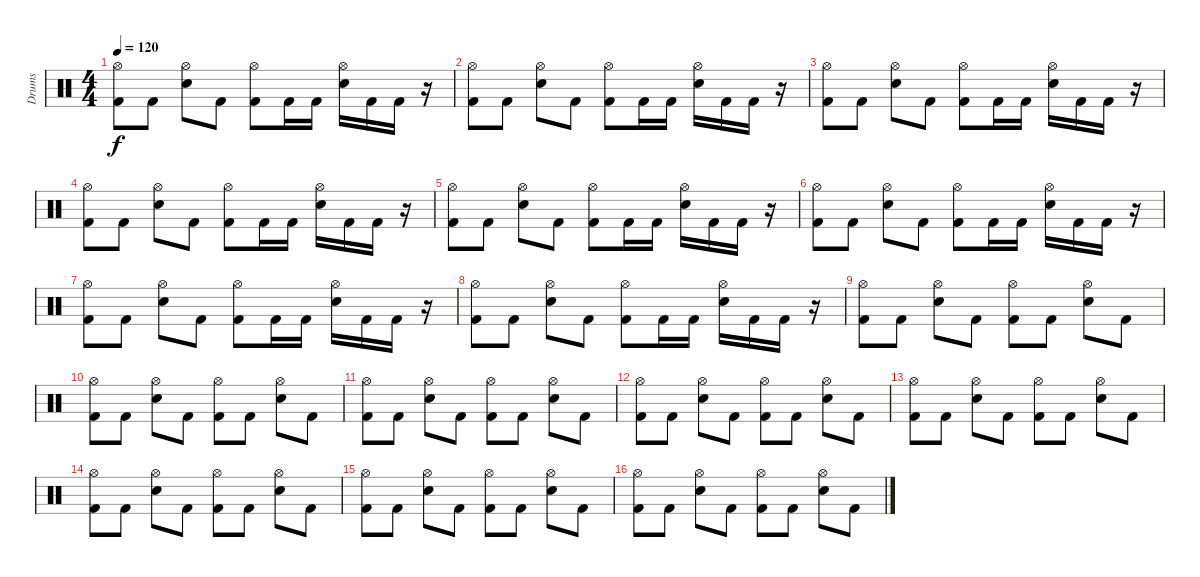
\track ("Drums" "Drums") {instrument percussion}
\staff {score}
\articulation defaults
\ts (4 4)
\tempo 120
\clef neutral
\ks c
("Hi-Hat (open)" "Kick (hit) 2").8{dy f} "Kick (hit) 2".8 ("Hi-Hat (open)" "Snare (hit) 2").8 "Kick (hit) 2".8 ("Hi-Hat (open)" "Kick (hit) 2").8 "Kick (hit) 2".16 "Kick (hit) 2".16 ("Hi-Hat (open)" "Snare (hit) 2").16 "Kick (hit) 2".16 "Kick (hit) 2".16 r.16 |
("Hi-Hat (open)" "Kick (hit) 2").8 "Kick (hit) 2".8 ("Hi-Hat (open)" "Snare (hit) 2").8 "Kick (hit) 2".8 ("Hi-Hat (open)" "Kick (hit) 2").8 "Kick (hit) 2".16 "Kick (hit) 2".16 ("Hi-Hat (open)" "Snare (hit) 2").16 "Kick (hit) 2".16 "Kick (hit) 2".16 r.16 |
("Hi-Hat (open)" "Kick (hit) 2").8 "Kick (hit) 2".8 ("Hi-Hat (open)" "Snare (hit) 2").8 "Kick (hit) 2".8 ("Hi-Hat (open)" "Kick (hit) 2").8 "Kick (hit) 2".16 "Kick (hit) 2".16 ("Hi-Hat (open)" "Snare (hit) 2").16 "Kick (hit) 2".16 "Kick (hit) 2".16 r.16 |
("Hi-Hat (open)" "Kick (hit) 2").8 "Kick (hit) 2".8 ("Hi-Hat (open)" "Snare (hit) 2").8 "Kick (hit) 2".8 ("Hi-Hat (open)" "Kick (hit) 2").8 "Kick (hit) 2".16 "Kick (hit) 2".16 ("Hi-Hat (open)" "Snare (hit) 2").16 "Kick (hit) 2".16 "Kick (hit) 2".16 r.16 |
("Hi-Hat (open)" "Kick (hit) 2").8 "Kick (hit) 2".8 ("Hi-Hat (open)" "Snare (hit) 2").8 "Kick (hit) 2".8 ("Hi-Hat (open)" "Kick (hit) 2").8 "Kick (hit) 2".16 "Kick (hit) 2".16 ("Hi-Hat (open)" "Snare (hit) 2").16 "Kick (hit) 2".16 "Kick (hit) 2".16 r.16 |
("Hi-Hat (open)" "Kick (hit) 2").8 "Kick (hit) 2".8 ("Hi-Hat (open)" "Snare (hit) 2").8 "Kick (hit) 2".8 ("Hi-Hat (open)" "Kick (hit) 2").8 "Kick (hit) 2".16 "Kick (hit) 2".16 ("Hi-Hat (open)" "Snare (hit) 2").16 "Kick (hit) 2".16 "Kick (hit) 2".16 r.16 |
("Hi-Hat (open)" "Kick (hit) 2").8 "Kick (hit) 2".8 ("Hi-Hat (open)" "Snare (hit) 2").8 "Kick (hit) 2".8 ("Hi-Hat (open)" "Kick (hit) 2").8 "Kick (hit) 2".16 "Kick (hit) 2".16 ("Hi-Hat (open)" "Snare (hit) 2").16 "Kick (hit) 2".16 "Kick (hit) 2".16 r.16 |
("Hi-Hat (open)" "Kick (hit) 2").8 "Kick (hit) 2".8 ("Hi-Hat (open)" "Snare (hit) 2").8 "Kick (hit) 2".8 ("Hi-Hat (open)" "Kick (hit) 2").8 "Kick (hit) 2".16 "Kick (hit) 2".16 ("Hi-Hat (open)" "Snare (hit) 2").16 "Kick (hit) 2".16 "Kick (hit) 2".16 r.16 |
("Hi-Hat (open)" "Kick (hit) 2").8 "Kick (hit) 2".8 ("Hi-Hat (open)" "Snare (hit) 2").8 "Kick (hit) 2".8 ("Hi-Hat (open)" "Kick (hit) 2").8 "Kick (hit) 2".8 ("Hi-Hat (open)" "Snare (hit) 2").8 "Kick (hit) 2".8 |
("Hi-Hat (open)" "Kick (hit) 2").8 "Kick (hit) 2".8 ("Hi-Hat (open)" "Snare (hit) 2").8 "Kick (hit) 2".8 ("Hi-Hat (open)" "Kick (hit) 2").8 "Kick (hit) 2".8 ("Hi-Hat (open)" "Snare (hit) 2").8 "Kick (hit) 2".8 |
("Hi-Hat (open)" "Kick (hit) 2").8 "Kick (hit) 2".8 ("Hi-Hat (open)" "Snare (hit) 2").8 "Kick (hit) 2".8 ("Hi-Hat (open)" "Kick (hit) 2").8 "Kick (hit) 2".8 ("Hi-Hat (open)" "Snare (hit) 2").8 "Kick (hit) 2".8 |
("Hi-Hat (open)" "Kick (hit) 2").8 "Kick (hit) 2".8 ("Hi-Hat (open)" "Snare (hit) 2").8 "Kick (hit) 2".8 ("Hi-Hat (open)" "Kick (hit) 2").8 "Kick (hit) 2".8 ("Hi-Hat (open)" "Snare (hit) 2").8 "Kick (hit) 2".8 |
("Hi-Hat (open)" "Kick (hit) 2").8 "Kick (hit) 2".8 ("Hi-Hat (open)" "Snare (hit) 2").8 "Kick (hit) 2".8 ("Hi-Hat (open)" "Kick (hit) 2").8 "Kick (hit) 2".8 ("Hi-Hat (open)" "Snare (hit) 2").8 "Kick (hit) 2".8 |
("Hi-Hat (open)" "Kick (hit) 2").8 "Kick (hit) 2".8 ("Hi-Hat (open)" "Snare (hit) 2").8 "Kick (hit) 2".8 ("Hi-Hat (open)" "Kick (hit) 2").8 "Kick (hit) 2".8 ("Hi-Hat (open)" "Snare (hit) 2").8 "Kick (hit) 2".8 |
("Hi-Hat (open)" "Kick (hit) 2").8 "Kick (hit) 2".8 ("Hi-Hat (open)" "Snare (hit) 2").8 "Kick (hit) 2".8 ("Hi-Hat (open)" "Kick (hit) 2").8 "Kick (hit) 2".8 ("Hi-Hat (open)" "Snare (hit) 2").8 "Kick (hit) 2".8 |
("Hi-Hat (open)" "Kick (hit) 2").8 "Kick (hit) 2".8 ("Hi-Hat (open)" "Snare (hit) 2").8 "Kick (hit) 2".8 ("Hi-Hat (open)" "Kick (hit) 2").8 "Kick (hit) 2".8 ("Hi-Hat (open)" "Snare (hit) 2").8 "Kick (hit) 2".8
